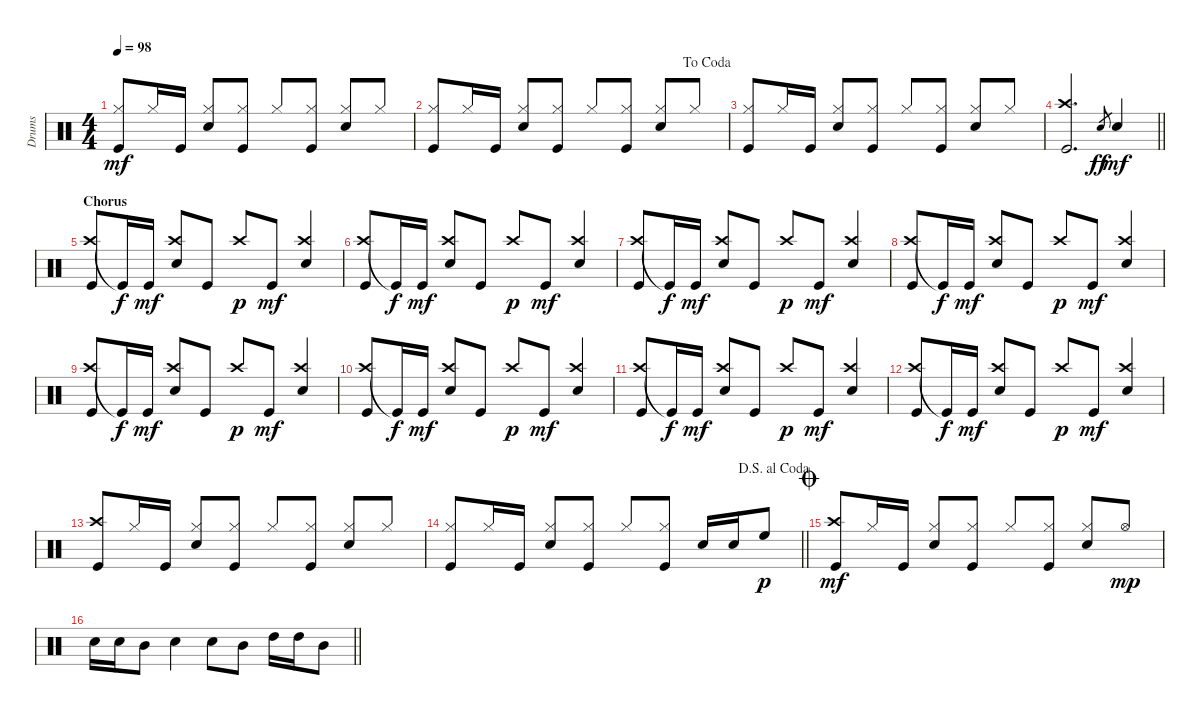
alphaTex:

\track ("Drums" "Drums") {instrument percussion}
\staff {score}
\articulation defaults
\ts (4 4)
\tempo 98
\clef neutral
\ks c
("Hi-Hat (closed)" "Kick (hit)").8{dy mf beam Up} "Hi-Hat (closed)".16{beam Up} "Kick (hit)".16{beam Up} ("Hi-Hat (closed)" "Snare (hit) 2").8{beam Up} ("Hi-Hat (closed)" "Kick (hit)").8{beam Up} "Hi-Hat (closed)".8{beam Up} ("Hi-Hat (closed)" "Kick (hit)").8{beam Up} ("Hi-Hat (closed)" "Snare (hit) 2").8{beam Up} "Hi-Hat (closed)".8{beam Up} |
\jump dacoda
("Hi-Hat (closed)" "Kick (hit)").8{beam Up} "Hi-Hat (closed)".16{beam Up} "Kick (hit)".16{beam Up} ("Hi-Hat (closed)" "Snare (hit) 2").8{beam Up} ("Hi-Hat (closed)" "Kick (hit)").8{beam Up} "Hi-Hat (closed)".8{beam Up} ("Hi-Hat (closed)" "Kick (hit)").8{beam Up} ("Hi-Hat (closed)" "Snare (hit) 2").8{beam Up} "Hi-Hat (closed)".8{beam Up} |
("Hi-Hat (closed)" "Kick (hit)").8{beam Up} "Hi-Hat (closed)".16{beam Up} "Kick (hit)".16{beam Up} ("Hi-Hat (closed)" "Snare (hit) 2").8{beam Up} ("Hi-Hat (closed)" "Kick (hit)").8{beam Up} "Hi-Hat (closed)".8{beam Up} ("Hi-Hat (closed)" "Kick (hit)").8{beam Up} ("Hi-Hat (closed)" "Snare (hit) 2").8{beam Up} "Hi-Hat (closed)".8{beam Up} |
\barLineRight lightlight
("Crash high (hit)" "Kick (hit)").2{d beam Up} "Snare (hit) 2".8{gr dy ff} "Snare (hit) 2".4{dy mf beam Up} |
\section ("" "Chorus")
("Crash high (hit)" "Kick (hit)").8{beam Up} "Kick (hit)"{t}.16{dy f beam Up} "Kick (hit)".16{dy mf beam Up} ("Crash high (hit)" "Snare (hit) 2").8{beam Up} "Kick (hit)".8{beam Up} "Crash high (hit)".8{dy p beam Up} "Kick (hit)".8{dy mf beam Up} ("Crash high (hit)" "Snare (hit) 2").4{beam Up} |
("Crash high (hit)" "Kick (hit)").8{beam Up} "Kick (hit)"{t}.16{dy f beam Up} "Kick (hit)".16{dy mf beam Up} ("Crash high (hit)" "Snare (hit) 2").8{beam Up} "Kick (hit)".8{beam Up} "Crash high (hit)".8{dy p beam Up} "Kick (hit)".8{dy mf beam Up} ("Crash high (hit)" "Snare (hit) 2").4{beam Up} |
("Crash high (hit)" "Kick (hit)").8{beam Up} "Kick (hit)"{t}.16{dy f beam Up} "Kick (hit)".16{dy mf beam Up} ("Crash high (hit)" "Snare (hit) 2").8{beam Up} "Kick (hit)".8{beam Up} "Crash high (hit)".8{dy p beam Up} "Kick (hit)".8{dy mf beam Up} ("Crash high (hit)" "Snare (hit) 2").4{beam Up} |
("Crash high (hit)" "Kick (hit)").8{beam Up} "Kick (hit)"{t}.16{dy f beam Up} "Kick (hit)".16{dy mf beam Up} ("Crash high (hit)" "Snare (hit) 2").8{beam Up} "Kick (hit)".8{beam Up} "Crash high (hit)".8{dy p beam Up} "Kick (hit)".8{dy mf beam Up} ("Crash high (hit)" "Snare (hit) 2").4{beam Up} |
("Crash high (hit)" "Kick (hit)").8{beam Up} "Kick (hit)"{t}.16{dy f beam Up} "Kick (hit)".16{dy mf beam Up} ("Crash high (hit)" "Snare (hit) 2").8{beam Up} "Kick (hit)".8{beam Up} "Crash high (hit)".8{dy p beam Up} "Kick (hit)".8{dy mf beam Up} ("Crash high (hit)" "Snare (hit) 2").4{beam Up} |
("Crash high (hit)" "Kick (hit)").8{beam Up} "Kick (hit)"{t}.16{dy f beam Up} "Kick (hit)".16{dy mf beam Up} ("Crash high (hit)" "Snare (hit) 2").8{beam Up} "Kick (hit)".8{beam Up} "Crash high (hit)".8{dy p beam Up} "Kick (hit)".8{dy mf beam Up} ("Crash high (hit)" "Snare (hit) 2").4{beam Up} |
("Crash high (hit)" "Kick (hit)").8{beam Up} "Kick (hit)"{t}.16{dy f beam Up} "Kick (hit)".16{dy mf beam Up} ("Crash high (hit)" "Snare (hit) 2").8{beam Up} "Kick (hit)".8{beam Up} "Crash high (hit)".8{dy p beam Up} "Kick (hit)".8{dy mf beam Up} ("Crash high (hit)" "Snare (hit) 2").4{beam Up} |
("Crash high (hit)" "Kick (hit)").8{beam Up} "Kick (hit)"{t}.16{dy f beam Up} "Kick (hit)".16{dy mf beam Up} ("Crash high (hit)" "Snare (hit) 2").8{beam Up} "Kick (hit)".8{beam Up} "Crash high (hit)".8{dy p beam Up} "Kick (hit)".8{dy mf beam Up} ("Crash high (hit)" "Snare (hit) 2").4{beam Up} |
("Crash high (hit)" "Kick (hit)").8{beam Up} "Hi-Hat (closed)".16{beam Up} "Kick (hit)".16{beam Up} ("Hi-Hat (closed)" "Snare (hit) 2").8{beam Up} ("Hi-Hat (closed)" "Kick (hit)").8{beam Up} "Hi-Hat (closed)".8{beam Up} ("Hi-Hat (closed)" "Kick (hit)").8{beam Up} ("Hi-Hat (closed)" "Snare (hit) 2").8{beam Up} "Hi-Hat (closed)".8{beam Up} |
\jump dalsegnoalcoda
\barLineRight lightlight
("Hi-Hat (closed)" "Kick (hit)").8{beam Up} "Hi-Hat (closed)".16{beam Up} "Kick (hit)".16{beam Up} ("Hi-Hat (closed)" "Snare (hit) 2").8{beam Up} ("Hi-Hat (closed)" "Kick (hit)").8{beam Up} "Hi-Hat (closed)".8{beam Up} ("Hi-Hat (closed)" "Kick (hit)").8{beam Up} "Snare (hit) 2".16{beam Up} "Snare (hit) 2".16{beam Up} "High Floor Tom (hit)".8{dy p beam Up} |
\jump coda
("Crash high (hit)" "Kick (hit)").8{dy mf beam Up} "Hi-Hat (closed)".16{beam Up} "Kick (hit)".16{beam Up} ("Hi-Hat (closed)" "Snare (hit) 2").8{beam Up} ("Hi-Hat (closed)" "Kick (hit)").8{beam Up} "Hi-Hat (closed)".8{beam Up} ("Hi-Hat (closed)" "Kick (hit)").8{beam Up} ("Hi-Hat (closed)" "Snare (hit) 2").8{beam Up} "Hi-Hat (open)".8{dy mp beam Up} |
\barLineRight lightlight "Snare (hit) 2".16 "Snare (hit) 2".16 "Mid Tom (hit)".8 "Snare (hit) 2".4 "Snare (hit) 2".8 "Mid Tom (hit)".8 "High Tom (hit)".16 "High Tom (hit)".16 "Mid Tom (hit)".8
